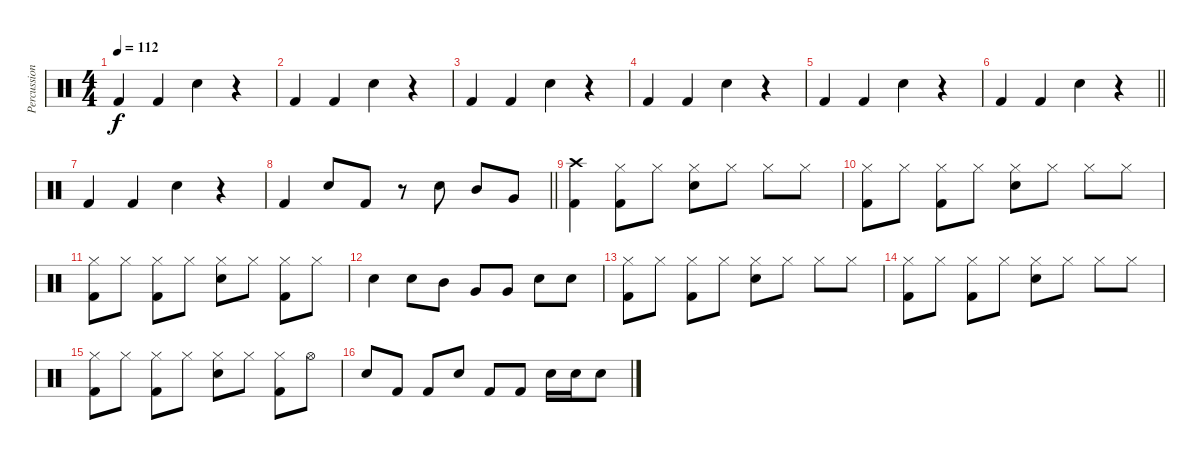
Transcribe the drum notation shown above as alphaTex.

\track ("Percussion" "Percussion") {instrument percussion}
\staff {score}
\articulation defaults
\ts (4 4)
\tempo 112
\clef neutral
\ks c "Kick (hit) 2".4{dy f} "Kick (hit) 2".4 "Snare (hit) 2".4
r.4 |
"Kick (hit) 2".4 "Kick (hit) 2".4 "Snare (hit) 2".4 r.4 |
"Kick (hit) 2".4 "Kick (hit) 2".4 "Snare (hit) 2".4 r.4 |
"Kick (hit) 2".4 "Kick (hit) 2".4 "Snare (hit) 2".4 r.4 |
"Kick (hit) 2".4 "Kick (hit) 2".4 "Snare (hit) 2".4 r.4 |
\barLineRight lightlight "Kick (hit) 2".4 "Kick (hit) 2".4 "Snare (hit) 2".4
r.4 |
"Kick (hit) 2".4 "Kick (hit) 2".4 "Snare (hit) 2".4 r.4 |
\barLineRight lightlight "Kick (hit) 2".4 "Snare (hit) 2".8 "Kick (hit) 2".8
r.8 "Snare (hit) 2".8 "Mid Tom (hit)".8 "Very Low Tom (hit)".8 |
("Crash high (hit)" "Kick (hit) 2").4 ("Hi-Hat (closed)" "Kick (hit) 2").8 "Hi-Hat (closed)".8 ("Hi-Hat (closed)" "Snare (hit) 2").8 "Hi-Hat (closed)".8 "Hi-Hat (closed)".8 "Hi-Hat (closed)".8 |
("Hi-Hat (closed)" "Kick (hit) 2").8 "Hi-Hat (closed)".8 ("Hi-Hat (closed)" "Kick (hit) 2").8 "Hi-Hat (closed)".8 ("Hi-Hat (closed)" "Snare (hit) 2").8 "Hi-Hat (closed)".8 "Hi-Hat (closed)".8 "Hi-Hat (closed)".8 |
("Hi-Hat (closed)" "Kick (hit) 2").8 "Hi-Hat (closed)".8 ("Hi-Hat (closed)" "Kick (hit) 2").8 "Hi-Hat (closed)".8 ("Hi-Hat (closed)" "Snare (hit) 2").8 "Hi-Hat (closed)".8 ("Hi-Hat (closed)" "Kick (hit) 2").8 "Hi-Hat (closed)".8 |
"Snare (hit) 2".4 "Snare (hit) 2".8 "Mid Tom (hit)".8 "Very Low Tom (hit)".8 "Very Low Tom (hit)".8 "Snare (hit) 2".8 "Snare (hit) 2".8 |
("Hi-Hat (closed)" "Kick (hit) 2").8 "Hi-Hat (closed)".8 ("Hi-Hat (closed)" "Kick (hit) 2").8 "Hi-Hat (closed)".8 ("Hi-Hat (closed)" "Snare (hit) 2").8 "Hi-Hat (closed)".8 "Hi-Hat (closed)".8 "Hi-Hat (closed)".8 |
("Hi-Hat (closed)" "Kick (hit) 2").8 "Hi-Hat (closed)".8 ("Hi-Hat (closed)" "Kick (hit) 2").8 "Hi-Hat (closed)".8 ("Hi-Hat (closed)" "Snare (hit) 2").8 "Hi-Hat (closed)".8 "Hi-Hat (closed)".8 "Hi-Hat (closed)".8 |
("Hi-Hat (closed)" "Kick (hit) 2").8 "Hi-Hat (closed)".8 ("Hi-Hat (closed)" "Kick (hit) 2").8 "Hi-Hat (closed)".8 ("Hi-Hat (closed)" "Snare (hit) 2").8 "Hi-Hat (closed)".8 ("Hi-Hat (closed)" "Kick (hit) 2").8 "Hi-Hat (open)".8 |
"Snare (hit) 2".8 "Kick (hit) 2".8 "Kick (hit) 2".8 "Snare (hit) 2".8 "Kick (hit) 2".8 "Kick (hit) 2".8 "Snare (hit) 2".16 "Snare (hit) 2".16 "Snare (hit) 2".8
